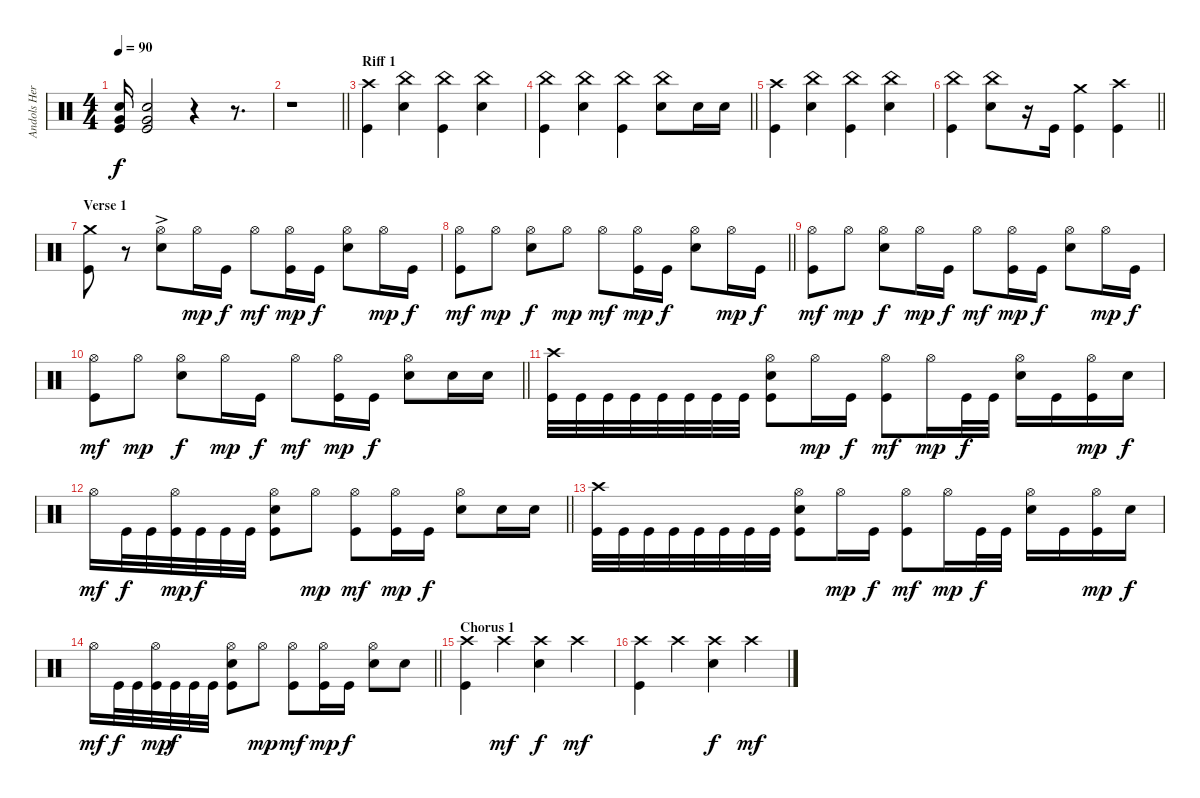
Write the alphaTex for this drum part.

\track ("Andols Herrick" "Andols Her") {instrument percussion}
\staff
\articulation defaults
\ts (4 4)
\tempo 90
\clef neutral
\ks c
("Electric Snare (hit)" "Very Low Tom (hit)" "Kick (hit)").16{dy f} ("Electric Snare (hit)" "Very Low Tom (hit)" "Kick (hit)").2 r.4 r.8{d} |
\barLineRight lightlight
r.1 |
\section ("" "Riff 1")
("Crash high (hit)" "Kick (hit)").4 ("China (hit)" "Electric Snare (hit)").4 ("China (hit)" "Kick (hit)").4 ("China (hit)" "Electric Snare (hit)").4 |
\barLineRight lightlight
("China (hit)" "Kick (hit)").4 ("China (hit)" "Electric Snare (hit)").4 ("China (hit)" "Kick (hit)").4 ("China (hit)" "Electric Snare (hit)").8 "Electric Snare (hit)".16 "Electric Snare (hit)".16 |
("Crash high (hit)" "Kick (hit)").4 ("China (hit)" "Electric Snare (hit)").4 ("China (hit)" "Kick (hit)").4 ("China (hit)" "Electric Snare (hit)").4 |
\barLineRight lightlight
("China (hit)" "Kick (hit)").4 ("China (hit)" "Electric Snare (hit)").8 r.16 "Kick (hit)".16 ("Crash medium (hit)" "Kick (hit)").4 ("Crash high (hit)" "Kick (hit)").4 |
\section ("" "Verse 1")
("Crash medium (hit)" "Kick (hit)").8 r.8 ("Hi-Hat (open)"{ac} "Electric Snare (hit)").8 "Hi-Hat (open)".16{dy mp} "Kick (hit)".16{dy f} "Hi-Hat (open)".8{dy mf} ("Hi-Hat (open)" "Kick (hit)").16{dy mp} "Kick (hit)".16{dy f} ("Hi-Hat (open)" "Electric Snare (hit)").8 "Hi-Hat (open)".16{dy mp} "Kick (hit)".16{dy f} |
\barLineRight lightlight
("Hi-Hat (open)" "Kick (hit)").8{dy mf} "Hi-Hat (open)".8{dy mp} ("Hi-Hat (open)" "Electric Snare (hit)").8{dy f} "Hi-Hat (open)".8{dy mp} "Hi-Hat (open)".8{dy mf} ("Hi-Hat (open)" "Kick (hit)").16{dy mp} "Kick (hit)".16{dy f} ("Hi-Hat (open)" "Electric Snare (hit)").8 "Hi-Hat (open)".16{dy mp} "Kick (hit)".16{dy f} |
("Hi-Hat (open)" "Kick (hit)").8{dy mf} "Hi-Hat (open)".8{dy mp} ("Hi-Hat (open)" "Electric Snare (hit)").8{dy f} "Hi-Hat (open)".16{dy mp} "Kick (hit)".16{dy f} "Hi-Hat (open)".8{dy mf} ("Hi-Hat (open)" "Kick (hit)").16{dy mp} "Kick (hit)".16{dy f} ("Hi-Hat (open)" "Electric Snare (hit)").8 "Hi-Hat (open)".16{dy mp} "Kick (hit)".16{dy f} |
\barLineRight lightlight
("Hi-Hat (open)" "Kick (hit)").8{dy mf} "Hi-Hat (open)".8{dy mp} ("Hi-Hat (open)" "Electric Snare (hit)").8{dy f} "Hi-Hat (open)".16{dy mp} "Kick (hit)".16{dy f} "Hi-Hat (open)".8{dy mf} ("Hi-Hat (open)" "Kick (hit)").16{dy mp} "Kick (hit)".16{dy f} ("Hi-Hat (open)" "Electric Snare (hit)").8 "Electric Snare (hit)".16 "Electric Snare (hit)".16 |
("Crash high (hit)" "Kick (hit)").32 "Kick (hit)".32 "Kick (hit)".32 "Kick (hit)".32 "Kick (hit)".32 "Kick (hit)".32 "Kick (hit)".32 "Kick (hit)".32 ("Hi-Hat (open)" "Electric Snare (hit)" "Kick (hit)").8 "Hi-Hat (open)".16{dy mp} "Kick (hit)".16{dy f} ("Hi-Hat (open)" "Kick (hit)").8{dy mf} "Hi-Hat (open)".16{dy mp} "Kick (hit)".32{dy f} "Kick (hit)".32 ("Hi-Hat (open)" "Electric Snare (hit)").16 "Kick (hit)".16 ("Hi-Hat (open)" "Kick (hit)").16{dy mp} "Electric Snare (hit)".16{dy f} |
\barLineRight lightlight "Hi-Hat (open)".16{dy mf} "Kick (hit)".32{dy f} "Kick (hit)".32
("Hi-Hat (open)" "Kick (hit)").32{dy mp} "Kick (hit)".32{dy f} "Kick (hit)".32 "Kick (hit)".32 ("Hi-Hat (open)" "Electric Snare (hit)" "Kick (hit)").8 "Hi-Hat (open)".8{dy mp} ("Hi-Hat (open)" "Kick (hit)").8{dy mf} ("Hi-Hat (open)" "Kick (hit)").16{dy mp} "Kick (hit)".16{dy f} ("Hi-Hat (open)" "Electric Snare (hit)").8 "Electric Snare (hit)".16 "Electric Snare (hit)".16 |
("Crash high (hit)" "Kick (hit)").32 "Kick (hit)".32 "Kick (hit)".32 "Kick (hit)".32 "Kick (hit)".32 "Kick (hit)".32 "Kick (hit)".32 "Kick (hit)".32 ("Hi-Hat (open)" "Electric Snare (hit)" "Kick (hit)").8 "Hi-Hat (open)".16{dy mp} "Kick (hit)".16{dy f} ("Hi-Hat (open)" "Kick (hit)").8{dy mf} "Hi-Hat (open)".16{dy mp} "Kick (hit)".32{dy f} "Kick (hit)".32 ("Hi-Hat (open)" "Electric Snare (hit)").16 "Kick (hit)".16 ("Hi-Hat (open)" "Kick (hit)").16{dy mp} "Electric Snare (hit)".16{dy f} |
\barLineRight lightlight "Hi-Hat (open)".16{dy mf} "Kick (hit)".32{dy f} "Kick (hit)".32
("Hi-Hat (open)" "Kick (hit)").32{dy mp} "Kick (hit)".32{dy f} "Kick (hit)".32 "Kick (hit)".32 ("Hi-Hat (open)" "Electric Snare (hit)" "Kick (hit)").8 "Hi-Hat (open)".8{dy mp} ("Hi-Hat (open)" "Kick (hit)").8{dy mf} ("Hi-Hat (open)" "Kick (hit)").16{dy mp} "Kick (hit)".16{dy f} ("Hi-Hat (open)" "Electric Snare (hit)").8 "Electric Snare (hit)".8 |
\section ("" "Chorus 1")
("Crash high (hit)" "Kick (hit)").4 "Crash high (hit)".4{dy mf} ("Crash high (hit)" "Electric Snare (hit)").4{dy f} "Crash high (hit)".4{dy mf} |
("Crash high (hit)" "Kick (hit)").4 "Crash high (hit)".4 ("Crash high (hit)" "Electric Snare (hit)").4{dy f} "Crash high (hit)".4{dy mf}
